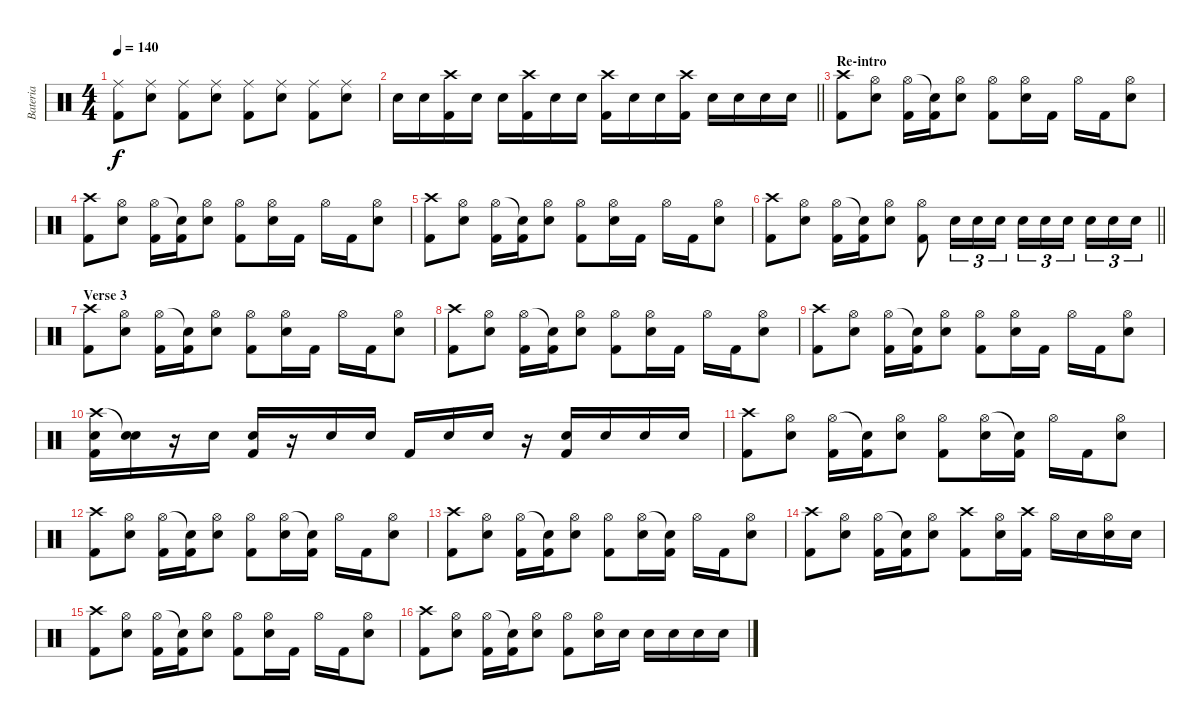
\track ("Bateria" "Bateria") {instrument percussion}
\staff {score}
\articulation defaults
\ts (4 4)
\tempo 140
\clef neutral
\ks c
("Ride (middle)" "Kick (hit) 2").8{dy f} ("Ride (middle)" "Electric Snare (hit)").8 ("Ride (middle)" "Kick (hit) 2").8 ("Ride (middle)" "Electric Snare (hit)").8 ("Ride (middle)" "Kick (hit) 2").8 ("Ride (middle)" "Electric Snare (hit)").8 ("Ride (middle)" "Kick (hit) 2").8 ("Ride (middle)" "Electric Snare (hit)").8 |
\barLineRight lightlight "Electric Snare (hit)".16 "Electric Snare (hit)".16
("Crash high (hit)" "Kick (hit) 2").16 "Electric Snare (hit)".16 "Electric Snare (hit)".16 ("Crash high (hit)" "Kick (hit) 2").16 "Electric Snare (hit)".16 "Electric Snare (hit)".16 ("Crash high (hit)" "Kick (hit) 2").16 "Electric Snare (hit)".16 "Electric Snare (hit)".16 ("Crash high (hit)" "Kick (hit) 2").16 "Electric Snare (hit)".16 "Electric Snare (hit)".16 "Electric Snare (hit)".16 "Electric Snare (hit)".16 |
\section ("" "Re-intro")
("Crash high (hit)" "Kick (hit) 2").8 ("Hi-Hat (open)" "Electric Snare (hit)").8 ("Hi-Hat (open)" "Kick (hit) 2").16 ("Snare (hit)"{t} "Kick (hit) 2").16 ("Hi-Hat (open)" "Electric Snare (hit)").8 ("Hi-Hat (open)" "Kick (hit) 2").8 ("Hi-Hat (open)" "Electric Snare (hit)").16 "Kick (hit) 2".16 "Hi-Hat (open)".16 "Kick (hit) 2".16 ("Hi-Hat (open)" "Electric Snare (hit)").8 |
("Crash high (hit)" "Kick (hit) 2").8 ("Hi-Hat (open)" "Electric Snare (hit)").8 ("Hi-Hat (open)" "Kick (hit) 2").16 ("Snare (hit)"{t} "Kick (hit) 2").16 ("Hi-Hat (open)" "Electric Snare (hit)").8 ("Hi-Hat (open)" "Kick (hit) 2").8 ("Hi-Hat (open)" "Electric Snare (hit)").16 "Kick (hit) 2".16 "Hi-Hat (open)".16 "Kick (hit) 2".16 ("Hi-Hat (open)" "Electric Snare (hit)").8 |
("Crash high (hit)" "Kick (hit) 2").8 ("Hi-Hat (open)" "Electric Snare (hit)").8 ("Hi-Hat (open)" "Kick (hit) 2").16 ("Snare (hit)"{t} "Kick (hit) 2").16 ("Hi-Hat (open)" "Electric Snare (hit)").8 ("Hi-Hat (open)" "Kick (hit) 2").8 ("Hi-Hat (open)" "Electric Snare (hit)").16 "Kick (hit) 2".16 "Hi-Hat (open)".16 "Kick (hit) 2".16 ("Hi-Hat (open)" "Electric Snare (hit)").8 |
\barLineRight lightlight
("Crash high (hit)" "Kick (hit) 2").8 ("Hi-Hat (open)" "Electric Snare (hit)").8 ("Hi-Hat (open)" "Kick (hit) 2").16 ("Snare (hit)"{t} "Kick (hit) 2").16 ("Hi-Hat (open)" "Electric Snare (hit)").8 ("Hi-Hat (open)" "Kick (hit) 2").8 "Electric Snare (hit)".16{tu (3 2)} "Electric Snare (hit)".16{tu (3 2)} "Electric Snare (hit)".16{tu (3 2)} "Electric Snare (hit)".16{tu (3 2)} "Electric Snare (hit)".16{tu (3 2)} "Electric Snare (hit)".16{tu (3 2) beam splitsecondary} "Electric Snare (hit)".16{tu (3 2)} "Electric Snare (hit)".16{tu (3 2)} "Electric Snare (hit)".16{tu (3 2)} |
\section ("" "Verse 3")
("Crash high (hit)" "Kick (hit) 2").8 ("Hi-Hat (open)" "Electric Snare (hit)").8 ("Hi-Hat (open)" "Kick (hit) 2").16 ("Snare (hit)"{t} "Kick (hit) 2").16 ("Hi-Hat (open)" "Electric Snare (hit)").8 ("Hi-Hat (open)" "Kick (hit) 2").8 ("Hi-Hat (open)" "Electric Snare (hit)").16 "Kick (hit) 2".16 "Hi-Hat (open)".16 "Kick (hit) 2".16 ("Hi-Hat (open)" "Electric Snare (hit)").8 |
("Crash high (hit)" "Kick (hit) 2").8 ("Hi-Hat (open)" "Electric Snare (hit)").8 ("Hi-Hat (open)" "Kick (hit) 2").16 ("Snare (hit)"{t} "Kick (hit) 2").16 ("Hi-Hat (open)" "Electric Snare (hit)").8 ("Hi-Hat (open)" "Kick (hit) 2").8 ("Hi-Hat (open)" "Electric Snare (hit)").16 "Kick (hit) 2".16 "Hi-Hat (open)".16 "Kick (hit) 2".16 ("Hi-Hat (open)" "Electric Snare (hit)").8 |
("Crash high (hit)" "Kick (hit) 2").8 ("Hi-Hat (open)" "Electric Snare (hit)").8 ("Hi-Hat (open)" "Kick (hit) 2").16 ("Snare (hit)"{t} "Kick (hit) 2").16 ("Hi-Hat (open)" "Electric Snare (hit)").8 ("Hi-Hat (open)" "Kick (hit) 2").8 ("Hi-Hat (open)" "Electric Snare (hit)").16 "Kick (hit) 2".16 "Hi-Hat (open)".16 "Kick (hit) 2".16 ("Hi-Hat (open)" "Electric Snare (hit)").8 |
("Crash high (hit)" "Electric Snare (hit)" "Kick (hit) 2").16 ("Snare (hit)"{t} "Electric Snare (hit)").16 r.16 "Electric Snare (hit)".16 ("Electric Snare (hit)" "Kick (hit) 2").16 r.16 "Electric Snare (hit)".16 "Electric Snare (hit)".16 "Kick (hit) 2".16 "Electric Snare (hit)".16 "Electric Snare (hit)".16 r.16 ("Electric Snare (hit)" "Kick (hit) 2").16 "Electric Snare (hit)".16 "Electric Snare (hit)".16 "Electric Snare (hit)".16 |
("Crash high (hit)" "Kick (hit) 2").8 ("Hi-Hat (open)" "Electric Snare (hit)").8 ("Hi-Hat (open)" "Kick (hit) 2").16 ("Snare (hit)"{t} "Kick (hit) 2").16 ("Hi-Hat (open)" "Electric Snare (hit)").8 ("Hi-Hat (open)" "Kick (hit) 2").8 ("Hi-Hat (open)" "Electric Snare (hit)").16 ("Snare (hit)"{t} "Kick (hit) 2").16 "Hi-Hat (open)".16 "Kick (hit) 2".16 ("Hi-Hat (open)" "Electric Snare (hit)").8 |
("Crash high (hit)" "Kick (hit) 2").8 ("Hi-Hat (open)" "Electric Snare (hit)").8 ("Hi-Hat (open)" "Kick (hit) 2").16 ("Snare (hit)"{t} "Kick (hit) 2").16 ("Hi-Hat (open)" "Electric Snare (hit)").8 ("Hi-Hat (open)" "Kick (hit) 2").8 ("Hi-Hat (open)" "Electric Snare (hit)").16 ("Snare (hit)"{t} "Kick (hit) 2").16 "Hi-Hat (open)".16 "Kick (hit) 2".16 ("Hi-Hat (open)" "Electric Snare (hit)").8 |
("Crash high (hit)" "Kick (hit) 2").8 ("Hi-Hat (open)" "Electric Snare (hit)").8 ("Hi-Hat (open)" "Kick (hit) 2").16 ("Snare (hit)"{t} "Kick (hit) 2").16 ("Hi-Hat (open)" "Electric Snare (hit)").8 ("Hi-Hat (open)" "Kick (hit) 2").8 ("Hi-Hat (open)" "Electric Snare (hit)").16 ("Snare (hit)"{t} "Kick (hit) 2").16 "Hi-Hat (open)".16 "Kick (hit) 2".16 ("Hi-Hat (open)" "Electric Snare (hit)").8 |
("Crash high (hit)" "Kick (hit) 2").8 ("Hi-Hat (open)" "Electric Snare (hit)").8 ("Hi-Hat (open)" "Kick (hit) 2").16 ("Snare (hit)"{t} "Kick (hit) 2").16 ("Hi-Hat (open)" "Electric Snare (hit)").8 ("Crash high (hit)" "Kick (hit) 2").8 ("Hi-Hat (open)" "Electric Snare (hit)").16 ("Crash high (hit)" "Kick (hit) 2").16 "Hi-Hat (open)".16 "Electric Snare (hit)".16 ("Hi-Hat (open)" "Electric Snare (hit)").16 "Electric Snare (hit)".16 |
("Crash high (hit)" "Kick (hit) 2").8 ("Hi-Hat (open)" "Electric Snare (hit)").8 ("Hi-Hat (open)" "Kick (hit) 2").16 ("Snare (hit)"{t} "Kick (hit) 2").16 ("Hi-Hat (open)" "Electric Snare (hit)").8 ("Hi-Hat (open)" "Kick (hit) 2").8 ("Hi-Hat (open)" "Electric Snare (hit)").16 "Kick (hit) 2".16 "Hi-Hat (open)".16 "Kick (hit) 2".16 ("Hi-Hat (open)" "Electric Snare (hit)").8 |
("Crash high (hit)" "Kick (hit) 2").8 ("Hi-Hat (open)" "Electric Snare (hit)").8 ("Hi-Hat (open)" "Kick (hit) 2").16 ("Snare (hit)"{t} "Kick (hit) 2").16 ("Hi-Hat (open)" "Electric Snare (hit)").8 ("Hi-Hat (open)" "Kick (hit) 2").8 ("Hi-Hat (open)" "Electric Snare (hit)").16 "Electric Snare (hit)".16 "Electric Snare (hit)".16 "Electric Snare (hit)".16 "Electric Snare (hit)".16 "Electric Snare (hit)".16
